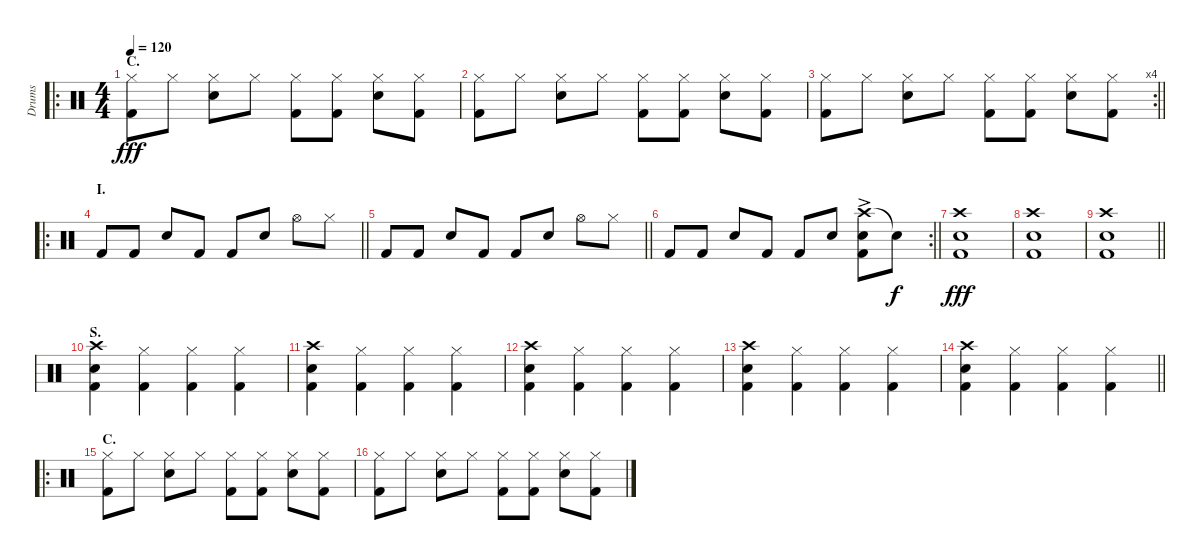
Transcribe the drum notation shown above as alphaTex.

\track ("Drums" "Drums") {instrument percussion}
\staff {score}
\articulation defaults
\ro
\ts (4 4)
\section ("" "C.")
\tempo 120
\clef neutral
\ks c
("Hi-Hat (closed)" "Kick (hit) 2").8{dy fff} "Hi-Hat (closed)".8 ("Hi-Hat (closed)" "Electric Snare (hit)").8 "Hi-Hat (closed)".8 ("Hi-Hat (closed)" "Kick (hit) 2").8 ("Hi-Hat (closed)" "Kick (hit) 2").8 ("Hi-Hat (closed)" "Electric Snare (hit)").8 ("Hi-Hat (closed)" "Kick (hit) 2").8 |
("Hi-Hat (closed)" "Kick (hit) 2").8 "Hi-Hat (closed)".8 ("Hi-Hat (closed)" "Electric Snare (hit)").8 "Hi-Hat (closed)".8 ("Hi-Hat (closed)" "Kick (hit) 2").8 ("Hi-Hat (closed)" "Kick (hit) 2").8 ("Hi-Hat (closed)" "Electric Snare (hit)").8 ("Hi-Hat (closed)" "Kick (hit) 2").8 |
\rc 4
\barLineRight lightlight
("Hi-Hat (closed)" "Kick (hit) 2").8 "Hi-Hat (closed)".8 ("Hi-Hat (closed)" "Electric Snare (hit)").8 "Hi-Hat (closed)".8 ("Hi-Hat (closed)" "Kick (hit) 2").8 ("Hi-Hat (closed)" "Kick (hit) 2").8 ("Hi-Hat (closed)" "Electric Snare (hit)").8 ("Hi-Hat (closed)" "Kick (hit) 2").8 |
\ro
\section ("" "I.")
\barLineRight lightlight "Kick (hit) 2".8 "Kick (hit) 2".8 "Electric Snare (hit)".8 "Kick (hit) 2".8 "Kick (hit) 2".8 "Electric Snare (hit)".8 "Hi-Hat (open)".8 "Hi-Hat (closed)".8
|
\barLineRight lightlight "Kick (hit) 2".8 "Kick (hit) 2".8 "Electric Snare (hit)".8 "Kick (hit) 2".8 "Kick (hit) 2".8 "Electric Snare (hit)".8 "Hi-Hat (open)".8 "Hi-Hat (closed)".8
|
\rc 2
\barLineRight lightlight "Kick (hit) 2".8 "Kick (hit) 2".8 "Electric Snare (hit)".8 "Kick (hit) 2".8 "Kick (hit) 2".8 "Electric Snare (hit)".8
("Crash high (hit)"{ac} "Electric Snare (hit)"{ac} "Kick (hit) 2"{ac}).8 "Snare (hit)"{t}.8{dy f} |
("Crash high (hit)" "Electric Snare (hit)" "Kick (hit) 2").1{dy fff} |
("Crash high (hit)" "Electric Snare (hit)" "Kick (hit) 2").1 |
\barLineRight lightlight
("Crash high (hit)" "Electric Snare (hit)" "Kick (hit) 2").1 |
\section ("" "S.")
("Crash high (hit)" "Electric Snare (hit)" "Kick (hit) 2").4 ("Hi-Hat (closed)" "Kick (hit) 2").4 ("Hi-Hat (closed)" "Kick (hit) 2").4 ("Hi-Hat (closed)" "Kick (hit) 2").4 |
("Crash high (hit)" "Electric Snare (hit)" "Kick (hit) 2").4 ("Hi-Hat (closed)" "Kick (hit) 2").4 ("Hi-Hat (closed)" "Kick (hit) 2").4 ("Hi-Hat (closed)" "Kick (hit) 2").4 |
("Crash high (hit)" "Electric Snare (hit)" "Kick (hit) 2").4 ("Hi-Hat (closed)" "Kick (hit) 2").4 ("Hi-Hat (closed)" "Kick (hit) 2").4 ("Hi-Hat (closed)" "Kick (hit) 2").4 |
("Crash high (hit)" "Electric Snare (hit)" "Kick (hit) 2").4 ("Hi-Hat (closed)" "Kick (hit) 2").4 ("Hi-Hat (closed)" "Kick (hit) 2").4 ("Hi-Hat (closed)" "Kick (hit) 2").4 |
\barLineRight lightlight
("Crash high (hit)" "Electric Snare (hit)" "Kick (hit) 2").4 ("Hi-Hat (closed)" "Kick (hit) 2").4 ("Hi-Hat (closed)" "Kick (hit) 2").4 ("Hi-Hat (closed)" "Kick (hit) 2").4 |
\ro
\section ("" "C.")
("Hi-Hat (closed)" "Kick (hit) 2").8 "Hi-Hat (closed)".8 ("Hi-Hat (closed)" "Electric Snare (hit)").8 "Hi-Hat (closed)".8 ("Hi-Hat (closed)" "Kick (hit) 2").8 ("Hi-Hat (closed)" "Kick (hit) 2").8 ("Hi-Hat (closed)" "Electric Snare (hit)").8 ("Hi-Hat (closed)" "Kick (hit) 2").8 |
("Hi-Hat (closed)" "Kick (hit) 2").8 "Hi-Hat (closed)".8 ("Hi-Hat (closed)" "Electric Snare (hit)").8 "Hi-Hat (closed)".8 ("Hi-Hat (closed)" "Kick (hit) 2").8 ("Hi-Hat (closed)" "Kick (hit) 2").8 ("Hi-Hat (closed)" "Electric Snare (hit)").8 ("Hi-Hat (closed)" "Kick (hit) 2").8
